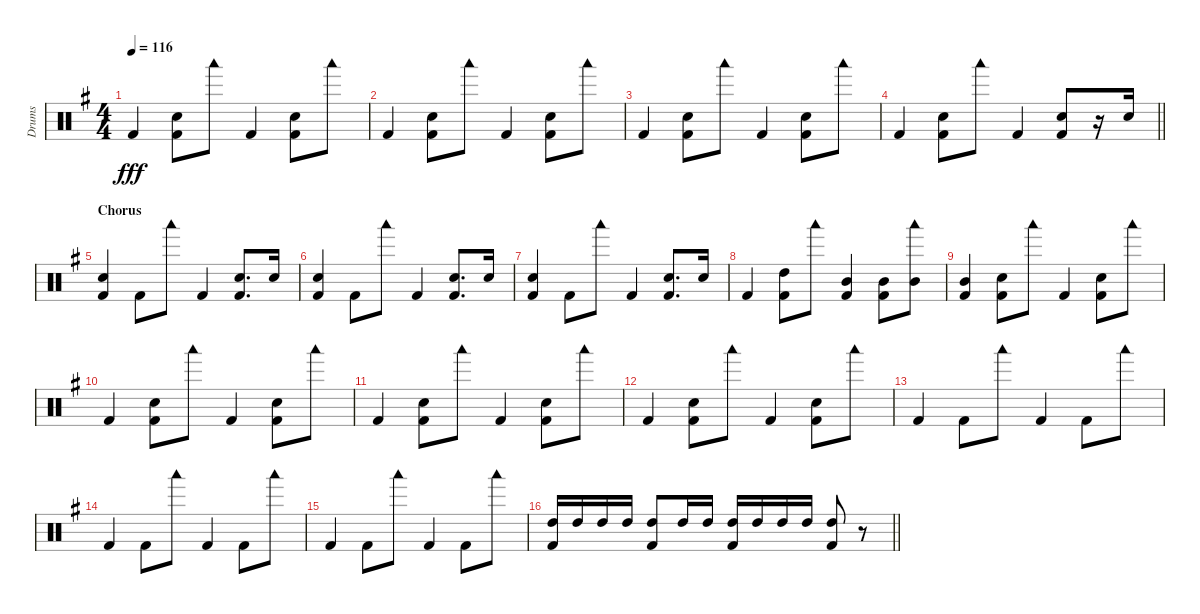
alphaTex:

\track ("Drums" "Drums") {instrument percussion}
\staff {score}
\articulation defaults
\ts (4 4)
\tempo 116
\clef neutral
\ks g "Kick (hit) 2".4{dy fff}
("Electric Snare (hit)" "Kick (hit) 2").8 "Woodblock low (hit)".8 "Kick (hit) 2".4 ("Electric Snare (hit)" "Kick (hit) 2").8 "Woodblock low (hit)".8 |
"Kick (hit) 2".4 ("Electric Snare (hit)" "Kick (hit) 2").8 "Woodblock low (hit)".8 "Kick (hit) 2".4 ("Electric Snare (hit)" "Kick (hit) 2").8 "Woodblock low (hit)".8 |
"Kick (hit) 2".4 ("Electric Snare (hit)" "Kick (hit) 2").8 "Woodblock low (hit)".8 "Kick (hit) 2".4 ("Electric Snare (hit)" "Kick (hit) 2").8 "Woodblock low (hit)".8 |
\barLineRight lightlight "Kick (hit) 2".4
("Electric Snare (hit)" "Kick (hit) 2").8 "Woodblock low (hit)".8 "Kick (hit) 2".4 ("Electric Snare (hit)" "Kick (hit) 2").8 r.16 "Electric Snare (hit)".16 |
\section ("" "Chorus")
("Electric Snare (hit)" "Kick (hit) 2").4 "Kick (hit) 2".8 "Woodblock low (hit)".8 "Kick (hit) 2".4 ("Electric Snare (hit)" "Kick (hit) 2").8{d} "Electric Snare (hit)".16 |
("Electric Snare (hit)" "Kick (hit) 2").4 "Kick (hit) 2".8 "Woodblock low (hit)".8 "Kick (hit) 2".4 ("Electric Snare (hit)" "Kick (hit) 2").8{d} "Electric Snare (hit)".16 |
("Electric Snare (hit)" "Kick (hit) 2").4 "Kick (hit) 2".8 "Woodblock low (hit)".8 "Kick (hit) 2".4 ("Electric Snare (hit)" "Kick (hit) 2").8{d} "Electric Snare (hit)".16 |
"Kick (hit) 2".4 ("High Tom (hit)" "Kick (hit) 2").8 "Woodblock low (hit)".8 ("Mid Tom (hit)" "Kick (hit) 2").4 ("Mid Tom (hit)" "Kick (hit) 2").8 ("Mid Tom (hit)" "Woodblock low (hit)").8 |
("Mid Tom (hit)" "Kick (hit) 2").4 ("Electric Snare (hit)" "Kick (hit) 2").8 "Woodblock low (hit)".8 "Kick (hit) 2".4 ("Electric Snare (hit)" "Kick (hit) 2").8 "Woodblock low (hit)".8 |
"Kick (hit) 2".4 ("Electric Snare (hit)" "Kick (hit) 2").8 "Woodblock low (hit)".8 "Kick (hit) 2".4 ("Electric Snare (hit)" "Kick (hit) 2").8 "Woodblock low (hit)".8 |
"Kick (hit) 2".4 ("Electric Snare (hit)" "Kick (hit) 2").8 "Woodblock low (hit)".8 "Kick (hit) 2".4 ("Electric Snare (hit)" "Kick (hit) 2").8 "Woodblock low (hit)".8 |
"Kick (hit) 2".4 ("Electric Snare (hit)" "Kick (hit) 2").8 "Woodblock low (hit)".8 "Kick (hit) 2".4 ("Electric Snare (hit)" "Kick (hit) 2").8 "Woodblock low (hit)".8 |
"Kick (hit) 2".4 "Kick (hit) 2".8 "Woodblock low (hit)".8 "Kick (hit) 2".4 "Kick (hit) 2".8 "Woodblock low (hit)".8 |
"Kick (hit) 2".4 "Kick (hit) 2".8 "Woodblock low (hit)".8 "Kick (hit) 2".4 "Kick (hit) 2".8 "Woodblock low (hit)".8 |
"Kick (hit) 2".4 "Kick (hit) 2".8 "Woodblock low (hit)".8 "Kick (hit) 2".4 "Kick (hit) 2".8 "Woodblock low (hit)".8 |
\barLineRight lightlight
("High Tom (hit)" "Kick (hit) 2").16 "High Tom (hit)".16 "High Tom (hit)".16 "High Tom (hit)".16 ("High Tom (hit)" "Kick (hit) 2").8 "High Tom (hit)".16 "High Tom (hit)".16 ("High Tom (hit)" "Kick (hit) 2").16 "High Tom (hit)".16 "High Tom (hit)".16 "High Tom (hit)".16 ("High Tom (hit)" "Kick (hit) 2").8 r.8
